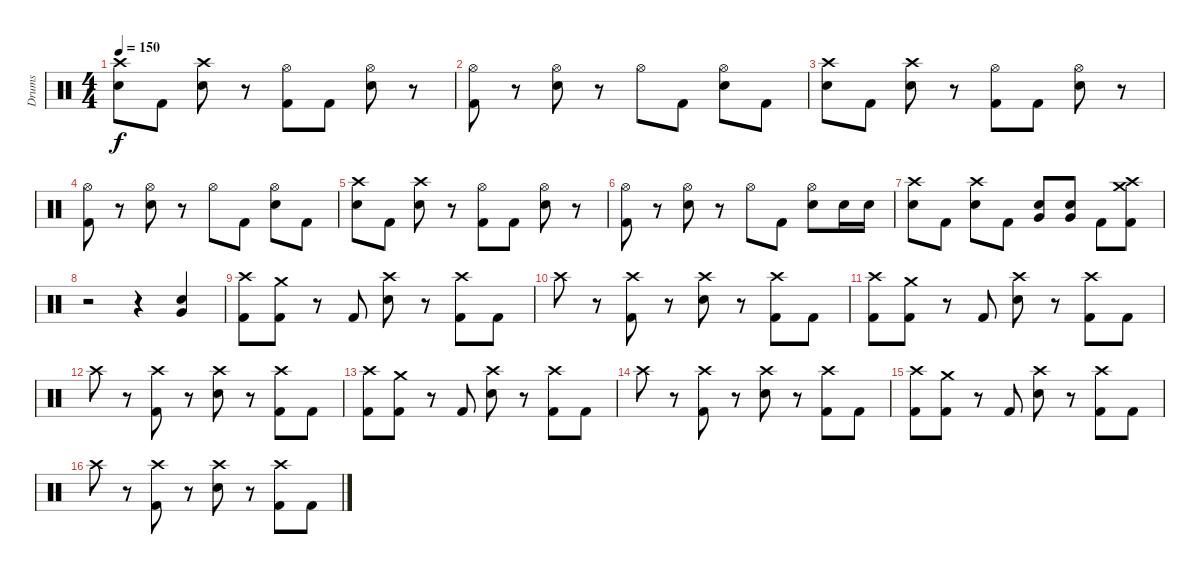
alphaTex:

\track ("Drums" "Drums") {instrument percussion}
\staff {score}
\articulation defaults
\ts (4 4)
\tempo 150
\clef neutral
\ks c
("Crash high (hit)" "Electric Snare (hit)").8{dy f} "Kick (hit) 2".8 ("Crash high (hit)" "Electric Snare (hit)").8 r.8 ("Hi-Hat (open)" "Kick (hit) 2").8 "Kick (hit) 2".8 ("Hi-Hat (open)" "Electric Snare (hit)").8 r.8 |
("Hi-Hat (open)" "Kick (hit) 2").8 r.8 ("Hi-Hat (open)" "Electric Snare (hit)").8 r.8 "Hi-Hat (open)".8 "Kick (hit) 2".8 ("Hi-Hat (open)" "Electric Snare (hit)").8 "Kick (hit) 2".8 |
("Crash high (hit)" "Electric Snare (hit)").8 "Kick (hit) 2".8 ("Crash high (hit)" "Electric Snare (hit)").8 r.8 ("Hi-Hat (open)" "Kick (hit) 2").8 "Kick (hit) 2".8 ("Hi-Hat (open)" "Electric Snare (hit)").8 r.8 |
("Hi-Hat (open)" "Kick (hit) 2").8 r.8 ("Hi-Hat (open)" "Electric Snare (hit)").8 r.8 "Hi-Hat (open)".8 "Kick (hit) 2".8 ("Hi-Hat (open)" "Electric Snare (hit)").8 "Kick (hit) 2".8 |
("Crash high (hit)" "Electric Snare (hit)").8 "Kick (hit) 2".8 ("Crash high (hit)" "Electric Snare (hit)").8 r.8 ("Hi-Hat (open)" "Kick (hit) 2").8 "Kick (hit) 2".8 ("Hi-Hat (open)" "Electric Snare (hit)").8 r.8 |
("Hi-Hat (open)" "Kick (hit) 2").8 r.8 ("Hi-Hat (open)" "Electric Snare (hit)").8 r.8 "Hi-Hat (open)".8 "Kick (hit) 2".8 ("Hi-Hat (open)" "Electric Snare (hit)").8 "Electric Snare (hit)".16 "Electric Snare (hit)".16 |
("Crash high (hit)" "Electric Snare (hit)").8 "Kick (hit) 2".8 ("Crash high (hit)" "Electric Snare (hit)").8 "Kick (hit) 2".8 ("Very Low Tom (hit)" "Electric Snare (hit)").8 ("Very Low Tom (hit)" "Electric Snare (hit)").8 "Kick (hit) 2".8 ("Crash high (hit)" "Crash medium (hit)" "Kick (hit) 2").8 |
r.2 r.4 ("Very Low Tom (hit)" "Electric Snare (hit)").4 |
("Crash high (hit)" "Kick (hit) 2").8 ("Crash medium (hit)" "Kick (hit) 2").8 r.8 "Kick (hit) 2".8 ("Crash high (hit)" "Electric Snare (hit)").8 r.8 ("Crash high (hit)" "Kick (hit) 2").8 "Kick (hit) 2".8 |
"Crash high (hit)".8 r.8 ("Crash high (hit)" "Kick (hit) 2").8 r.8 ("Crash high (hit)" "Electric Snare (hit)").8 r.8 ("Crash high (hit)" "Kick (hit) 2").8 "Kick (hit) 2".8 |
("Crash high (hit)" "Kick (hit) 2").8 ("Crash medium (hit)" "Kick (hit) 2").8 r.8 "Kick (hit) 2".8 ("Crash high (hit)" "Electric Snare (hit)").8 r.8 ("Crash high (hit)" "Kick (hit) 2").8 "Kick (hit) 2".8 |
"Crash high (hit)".8 r.8 ("Crash high (hit)" "Kick (hit) 2").8 r.8 ("Crash high (hit)" "Electric Snare (hit)").8 r.8 ("Crash high (hit)" "Kick (hit) 2").8 "Kick (hit) 2".8 |
("Crash high (hit)" "Kick (hit) 2").8 ("Crash medium (hit)" "Kick (hit) 2").8 r.8 "Kick (hit) 2".8 ("Crash high (hit)" "Electric Snare (hit)").8 r.8 ("Crash high (hit)" "Kick (hit) 2").8 "Kick (hit) 2".8 |
"Crash high (hit)".8 r.8 ("Crash high (hit)" "Kick (hit) 2").8 r.8 ("Crash high (hit)" "Electric Snare (hit)").8 r.8 ("Crash high (hit)" "Kick (hit) 2").8 "Kick (hit) 2".8 |
("Crash high (hit)" "Kick (hit) 2").8 ("Crash medium (hit)" "Kick (hit) 2").8 r.8 "Kick (hit) 2".8 ("Crash high (hit)" "Electric Snare (hit)").8 r.8 ("Crash high (hit)" "Kick (hit) 2").8 "Kick (hit) 2".8 |
"Crash high (hit)".8 r.8 ("Crash high (hit)" "Kick (hit) 2").8 r.8 ("Crash high (hit)" "Electric Snare (hit)").8 r.8 ("Crash high (hit)" "Kick (hit) 2").8 "Kick (hit) 2".8
